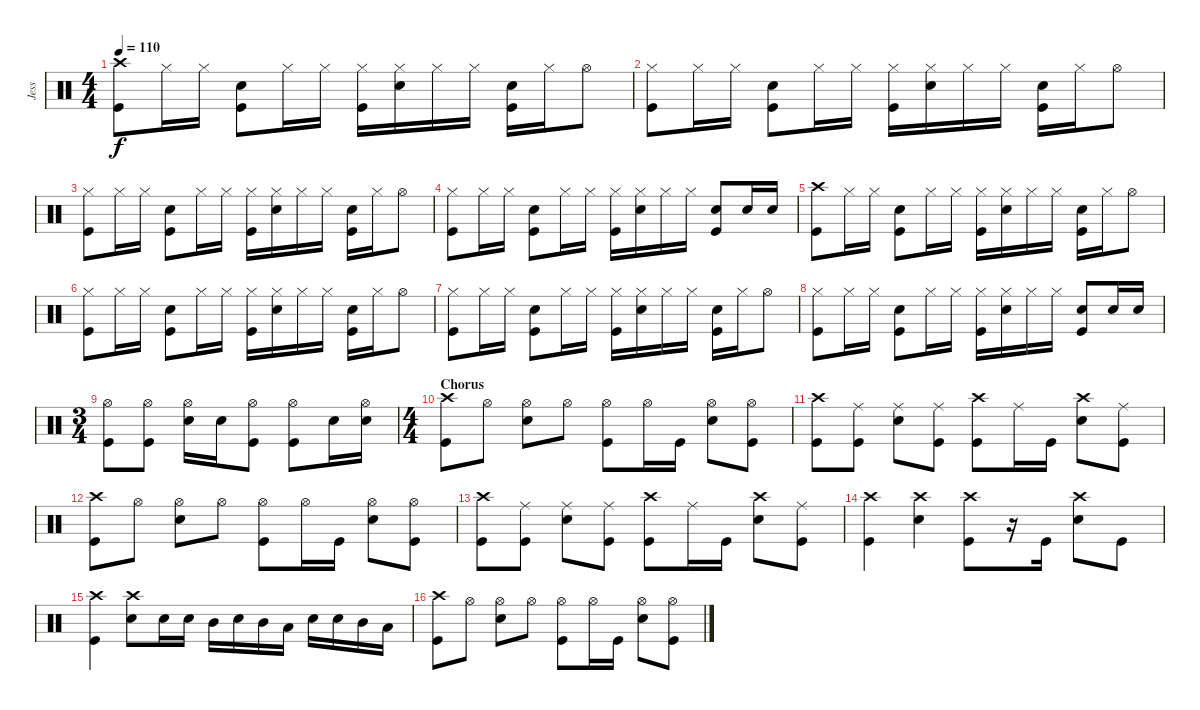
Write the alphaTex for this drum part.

\track ("Jess" "Jess") {instrument percussion}
\staff {score}
\articulation defaults
\ts (4 4)
\tempo 110
\clef neutral
\ks c
("Crash high (hit)" "Kick (hit)").8{dy f} "Hi-Hat (closed)".16 "Hi-Hat (closed)".16 ("Electric Snare (hit)" "Kick (hit)").8 "Hi-Hat (closed)".16 "Hi-Hat (closed)".16 ("Hi-Hat (closed)" "Kick (hit)").16 ("Hi-Hat (closed)" "Electric Snare (hit)").16 "Hi-Hat (closed)".16 "Hi-Hat (closed)".16 ("Electric Snare (hit)" "Kick (hit)").16 "Hi-Hat (closed)".16 "Hi-Hat (open)".8 |
("Hi-Hat (closed)" "Kick (hit)").8 "Hi-Hat (closed)".16 "Hi-Hat (closed)".16 ("Electric Snare (hit)" "Kick (hit)").8 "Hi-Hat (closed)".16 "Hi-Hat (closed)".16 ("Hi-Hat (closed)" "Kick (hit)").16 ("Hi-Hat (closed)" "Electric Snare (hit)").16 "Hi-Hat (closed)".16 "Hi-Hat (closed)".16 ("Electric Snare (hit)" "Kick (hit)").16 "Hi-Hat (closed)".16 "Hi-Hat (open)".8 |
("Hi-Hat (closed)" "Kick (hit)").8 "Hi-Hat (closed)".16 "Hi-Hat (closed)".16 ("Electric Snare (hit)" "Kick (hit)").8 "Hi-Hat (closed)".16 "Hi-Hat (closed)".16 ("Hi-Hat (closed)" "Kick (hit)").16 ("Hi-Hat (closed)" "Electric Snare (hit)").16 "Hi-Hat (closed)".16 "Hi-Hat (closed)".16 ("Electric Snare (hit)" "Kick (hit)").16 "Hi-Hat (closed)".16 "Hi-Hat (open)".8 |
("Hi-Hat (closed)" "Kick (hit)").8 "Hi-Hat (closed)".16 "Hi-Hat (closed)".16 ("Electric Snare (hit)" "Kick (hit)").8 "Hi-Hat (closed)".16 "Hi-Hat (closed)".16 ("Hi-Hat (closed)" "Kick (hit)").16 ("Hi-Hat (closed)" "Electric Snare (hit)").16 "Hi-Hat (closed)".16 "Hi-Hat (closed)".16 ("Electric Snare (hit)" "Kick (hit)").8 "Electric Snare (hit)".16 "Electric Snare (hit)".16 |
("Crash high (hit)" "Kick (hit)").8 "Hi-Hat (closed)".16 "Hi-Hat (closed)".16 ("Electric Snare (hit)" "Kick (hit)").8 "Hi-Hat (closed)".16 "Hi-Hat (closed)".16 ("Hi-Hat (closed)" "Kick (hit)").16 ("Hi-Hat (closed)" "Electric Snare (hit)").16 "Hi-Hat (closed)".16 "Hi-Hat (closed)".16 ("Electric Snare (hit)" "Kick (hit)").16 "Hi-Hat (closed)".16 "Hi-Hat (open)".8 |
("Hi-Hat (closed)" "Kick (hit)").8 "Hi-Hat (closed)".16 "Hi-Hat (closed)".16 ("Electric Snare (hit)" "Kick (hit)").8 "Hi-Hat (closed)".16 "Hi-Hat (closed)".16 ("Hi-Hat (closed)" "Kick (hit)").16 ("Hi-Hat (closed)" "Electric Snare (hit)").16 "Hi-Hat (closed)".16 "Hi-Hat (closed)".16 ("Electric Snare (hit)" "Kick (hit)").16 "Hi-Hat (closed)".16 "Hi-Hat (open)".8 |
("Hi-Hat (closed)" "Kick (hit)").8 "Hi-Hat (closed)".16 "Hi-Hat (closed)".16 ("Electric Snare (hit)" "Kick (hit)").8 "Hi-Hat (closed)".16 "Hi-Hat (closed)".16 ("Hi-Hat (closed)" "Kick (hit)").16 ("Hi-Hat (closed)" "Electric Snare (hit)").16 "Hi-Hat (closed)".16 "Hi-Hat (closed)".16 ("Electric Snare (hit)" "Kick (hit)").16 "Hi-Hat (closed)".16 "Hi-Hat (open)".8 |
("Hi-Hat (closed)" "Kick (hit)").8 "Hi-Hat (closed)".16 "Hi-Hat (closed)".16 ("Electric Snare (hit)" "Kick (hit)").8 "Hi-Hat (closed)".16 "Hi-Hat (closed)".16 ("Hi-Hat (closed)" "Kick (hit)").16 ("Hi-Hat (closed)" "Electric Snare (hit)").16 "Hi-Hat (closed)".16 "Hi-Hat (closed)".16 ("Electric Snare (hit)" "Kick (hit)").8 "Electric Snare (hit)".16 "Electric Snare (hit)".16 |
\ts (3 4)
("Hi-Hat (open)" "Kick (hit)").8 ("Hi-Hat (open)" "Kick (hit)").8 ("Hi-Hat (open)" "Electric Snare (hit)").16 "Electric Snare (hit)".16 ("Hi-Hat (open)" "Kick (hit)").8 ("Hi-Hat (open)" "Kick (hit)").8 "Electric Snare (hit)".16 ("Hi-Hat (open)" "Electric Snare (hit)").16 |
\ts (4 4)
\section ("" "Chorus")
("Crash high (hit)" "Kick (hit)").8 "Hi-Hat (open)".8 ("Hi-Hat (open)" "Electric Snare (hit)").8 "Hi-Hat (open)".8 ("Hi-Hat (open)" "Kick (hit)").8 "Hi-Hat (open)".16 "Kick (hit)".16 ("Hi-Hat (open)" "Electric Snare (hit)").8 ("Hi-Hat (open)" "Kick (hit)").8 |
("Crash high (hit)" "Kick (hit)").8 ("Ride (middle)" "Kick (hit)").8 ("Ride (middle)" "Electric Snare (hit)").8 ("Ride (middle)" "Kick (hit)").8 ("Crash high (hit)" "Kick (hit)").8 "Ride (middle)".16 "Kick (hit)".16 ("Crash high (hit)" "Electric Snare (hit)").8 ("Ride (middle)" "Kick (hit)").8 |
("Crash high (hit)" "Kick (hit)").8 "Hi-Hat (open)".8 ("Hi-Hat (open)" "Electric Snare (hit)").8 "Hi-Hat (open)".8 ("Hi-Hat (open)" "Kick (hit)").8 "Hi-Hat (open)".16 "Kick (hit)".16 ("Hi-Hat (open)" "Electric Snare (hit)").8 ("Hi-Hat (open)" "Kick (hit)").8 |
("Crash high (hit)" "Kick (hit)").8 ("Ride (middle)" "Kick (hit)").8 ("Ride (middle)" "Electric Snare (hit)").8 ("Ride (middle)" "Kick (hit)").8 ("Crash high (hit)" "Kick (hit)").8 "Ride (middle)".16 "Kick (hit)".16 ("Crash high (hit)" "Electric Snare (hit)").8 ("Ride (middle)" "Kick (hit)").8 |
("Crash high (hit)" "Kick (hit)").4 ("Crash high (hit)" "Electric Snare (hit)").4 ("Crash high (hit)" "Kick (hit)").8 r.16 "Kick (hit)".16 ("Crash high (hit)" "Electric Snare (hit)").8 "Kick (hit)".8 |
("Crash high (hit)" "Kick (hit)").4 ("Crash high (hit)" "Electric Snare (hit)").8 "Electric Snare (hit)".16 "Electric Snare (hit)".16 "Mid Tom (hit)".16 "Electric Snare (hit)".16 "Mid Tom (hit)".16 "Low Tom (hit)".16 "Electric Snare (hit)".16 "Electric Snare (hit)".16 "Mid Tom (hit)".16 "Low Tom (hit)".16 |
("Crash high (hit)" "Kick (hit)").8 "Hi-Hat (open)".8 ("Hi-Hat (open)" "Electric Snare (hit)").8 "Hi-Hat (open)".8 ("Hi-Hat (open)" "Kick (hit)").8 "Hi-Hat (open)".16 "Kick (hit)".16 ("Hi-Hat (open)" "Electric Snare (hit)").8 ("Hi-Hat (open)" "Kick (hit)").8
